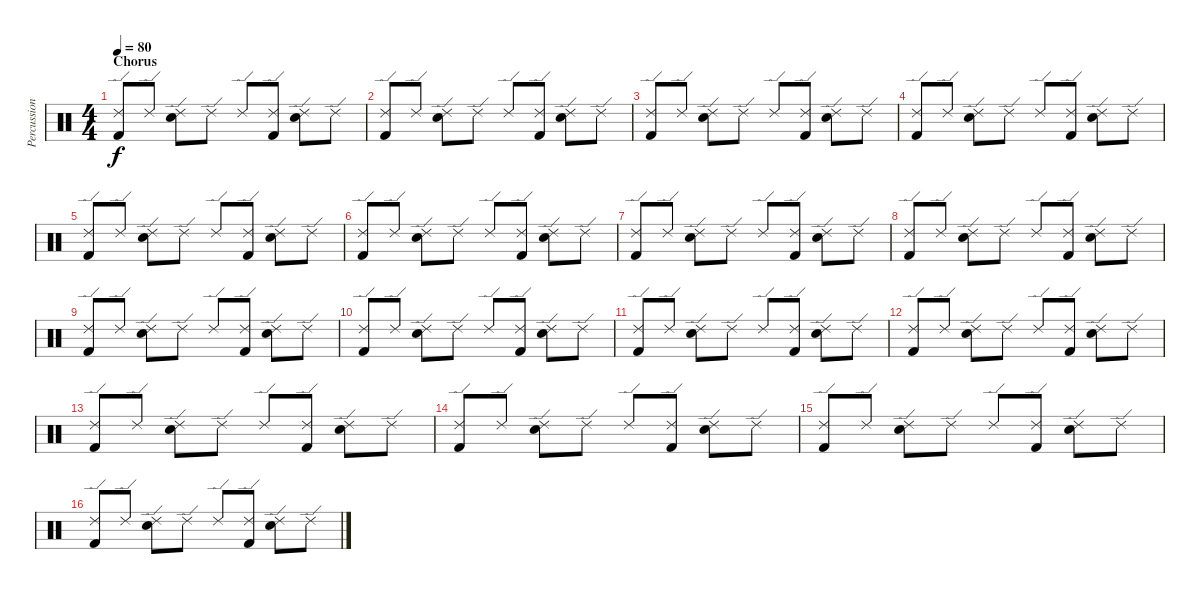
\track ("Percussion" "Percussion") {instrument percussion}
\staff {score}
\articulation defaults
\ts (4 4)
\section ("" "Chorus")
\tempo 80
\clef neutral
\ks c
("Ride (edge) 2" "Kick (hit) 2").8{dy f} "Ride (edge) 2".8 ("Ride (edge) 2" "Electric Snare (hit)").8 "Ride (edge) 2".8 "Ride (edge) 2".8 ("Ride (edge) 2" "Kick (hit) 2").8 ("Ride (edge) 2" "Electric Snare (hit)").8 "Ride (edge) 2".8 |
("Ride (edge) 2" "Kick (hit) 2").8 "Ride (edge) 2".8 ("Ride (edge) 2" "Electric Snare (hit)").8 "Ride (edge) 2".8 "Ride (edge) 2".8 ("Ride (edge) 2" "Kick (hit) 2").8 ("Ride (edge) 2" "Electric Snare (hit)").8 "Ride (edge) 2".8 |
("Ride (edge) 2" "Kick (hit) 2").8 "Ride (edge) 2".8 ("Ride (edge) 2" "Electric Snare (hit)").8 "Ride (edge) 2".8 "Ride (edge) 2".8 ("Ride (edge) 2" "Kick (hit) 2").8 ("Ride (edge) 2" "Electric Snare (hit)").8 "Ride (edge) 2".8 |
("Ride (edge) 2" "Kick (hit) 2").8 "Ride (edge) 2".8 ("Ride (edge) 2" "Electric Snare (hit)").8 "Ride (edge) 2".8 "Ride (edge) 2".8 ("Ride (edge) 2" "Kick (hit) 2").8 ("Ride (edge) 2" "Electric Snare (hit)").8 "Ride (edge) 2".8 |
("Ride (edge) 2" "Kick (hit) 2").8 "Ride (edge) 2".8 ("Ride (edge) 2" "Electric Snare (hit)").8 "Ride (edge) 2".8 "Ride (edge) 2".8 ("Ride (edge) 2" "Kick (hit) 2").8 ("Ride (edge) 2" "Electric Snare (hit)").8 "Ride (edge) 2".8 |
("Ride (edge) 2" "Kick (hit) 2").8 "Ride (edge) 2".8 ("Ride (edge) 2" "Electric Snare (hit)").8 "Ride (edge) 2".8 "Ride (edge) 2".8 ("Ride (edge) 2" "Kick (hit) 2").8 ("Ride (edge) 2" "Electric Snare (hit)").8 "Ride (edge) 2".8 |
("Ride (edge) 2" "Kick (hit) 2").8 "Ride (edge) 2".8 ("Ride (edge) 2" "Electric Snare (hit)").8 "Ride (edge) 2".8 "Ride (edge) 2".8 ("Ride (edge) 2" "Kick (hit) 2").8 ("Ride (edge) 2" "Electric Snare (hit)").8 "Ride (edge) 2".8 |
("Ride (edge) 2" "Kick (hit) 2").8 "Ride (edge) 2".8 ("Ride (edge) 2" "Electric Snare (hit)").8 "Ride (edge) 2".8 "Ride (edge) 2".8 ("Ride (edge) 2" "Kick (hit) 2").8 ("Ride (edge) 2" "Electric Snare (hit)").8 "Ride (edge) 2".8 |
("Ride (edge) 2" "Kick (hit) 2").8 "Ride (edge) 2".8 ("Ride (edge) 2" "Electric Snare (hit)").8 "Ride (edge) 2".8 "Ride (edge) 2".8 ("Ride (edge) 2" "Kick (hit) 2").8 ("Ride (edge) 2" "Electric Snare (hit)").8 "Ride (edge) 2".8 |
("Ride (edge) 2" "Kick (hit) 2").8 "Ride (edge) 2".8 ("Ride (edge) 2" "Electric Snare (hit)").8 "Ride (edge) 2".8 "Ride (edge) 2".8 ("Ride (edge) 2" "Kick (hit) 2").8 ("Ride (edge) 2" "Electric Snare (hit)").8 "Ride (edge) 2".8 |
("Ride (edge) 2" "Kick (hit) 2").8 "Ride (edge) 2".8 ("Ride (edge) 2" "Electric Snare (hit)").8 "Ride (edge) 2".8 "Ride (edge) 2".8 ("Ride (edge) 2" "Kick (hit) 2").8 ("Ride (edge) 2" "Electric Snare (hit)").8 "Ride (edge) 2".8 |
("Ride (edge) 2" "Kick (hit) 2").8 "Ride (edge) 2".8 ("Ride (edge) 2" "Electric Snare (hit)").8 "Ride (edge) 2".8 "Ride (edge) 2".8 ("Ride (edge) 2" "Kick (hit) 2").8 ("Ride (edge) 2" "Electric Snare (hit)").8 "Ride (edge) 2".8 |
("Ride (edge) 2" "Kick (hit) 2").8 "Ride (edge) 2".8 ("Ride (edge) 2" "Electric Snare (hit)").8 "Ride (edge) 2".8 "Ride (edge) 2".8 ("Ride (edge) 2" "Kick (hit) 2").8 ("Ride (edge) 2" "Electric Snare (hit)").8 "Ride (edge) 2".8 |
("Ride (edge) 2" "Kick (hit) 2").8 "Ride (edge) 2".8 ("Ride (edge) 2" "Electric Snare (hit)").8 "Ride (edge) 2".8 "Ride (edge) 2".8 ("Ride (edge) 2" "Kick (hit) 2").8 ("Ride (edge) 2" "Electric Snare (hit)").8 "Ride (edge) 2".8 |
("Ride (edge) 2" "Kick (hit) 2").8 "Ride (edge) 2".8 ("Ride (edge) 2" "Electric Snare (hit)").8 "Ride (edge) 2".8 "Ride (edge) 2".8 ("Ride (edge) 2" "Kick (hit) 2").8 ("Ride (edge) 2" "Electric Snare (hit)").8 "Ride (edge) 2".8 |
("Ride (edge) 2" "Kick (hit) 2").8 "Ride (edge) 2".8 ("Ride (edge) 2" "Electric Snare (hit)").8 "Ride (edge) 2".8 "Ride (edge) 2".8 ("Ride (edge) 2" "Kick (hit) 2").8 ("Ride (edge) 2" "Electric Snare (hit)").8 "Ride (edge) 2".8
